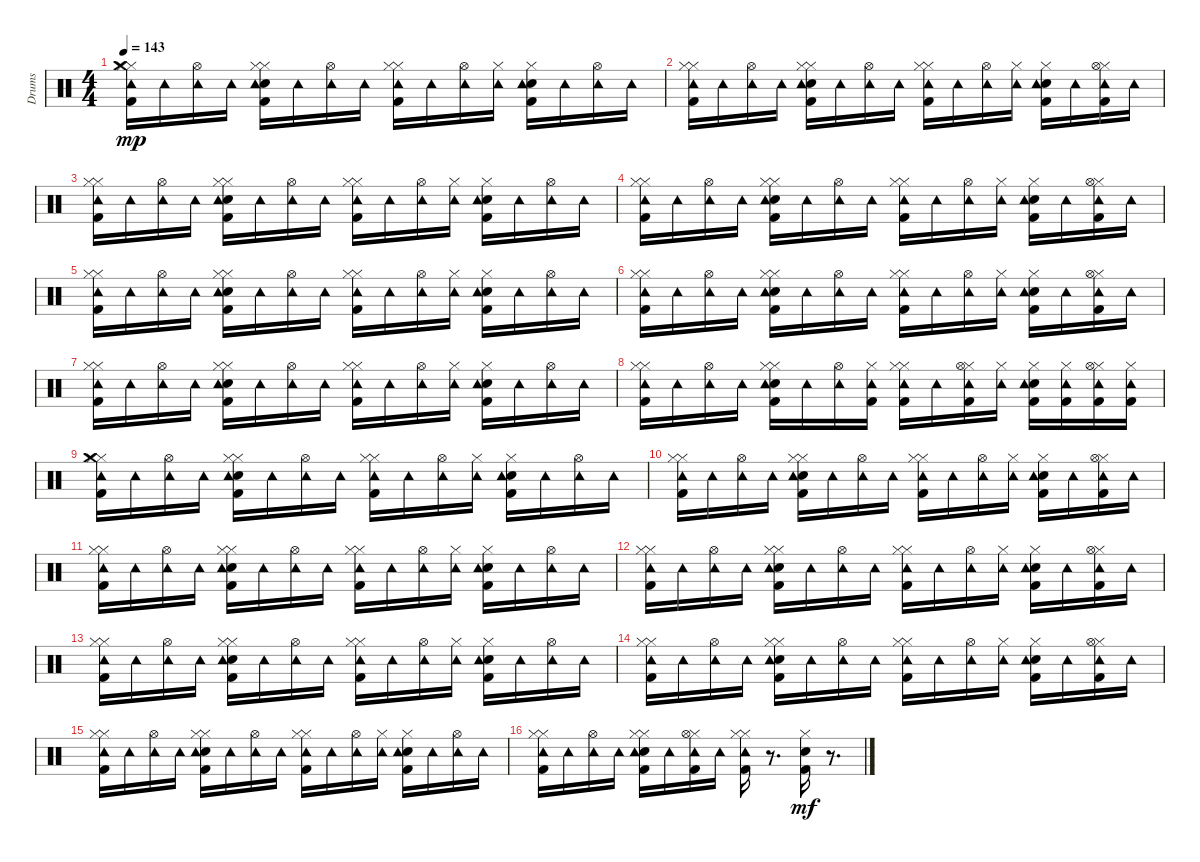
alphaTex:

\track ("Drums" "Drums") {instrument percussion}
\staff {score}
\articulation defaults
\ts (4 4)
\tempo 143
\clef neutral
\ks c
("Hi-Hat (closed)" "Kick (hit) 2" "Hi-Hat (closed)" "Tambourine (hit)" "Crash medium (hit)").16{dy mp} "Tambourine (hit)".16 ("Hi-Hat (open)" "Tambourine (hit)").16 "Tambourine (hit)".16 ("Hi-Hat (closed)" "Kick (hit) 2" "Hand Clap (hit)" "Hi-Hat (closed)" "Tambourine (hit)").16 "Tambourine (hit)".16 ("Hi-Hat (open)" "Tambourine (hit)").16 "Tambourine (hit)".16 ("Hi-Hat (closed)" "Kick (hit) 2" "Hi-Hat (closed)" "Tambourine (hit)").16 "Tambourine (hit)".16 ("Hi-Hat (open)" "Tambourine (hit)").16 ("Hi-Hat (closed)" "Tambourine (hit)").16 ("Hi-Hat (closed)" "Kick (hit) 2" "Hand Clap (hit)" "Tambourine (hit)").16 "Tambourine (hit)".16 ("Hi-Hat (open)" "Tambourine (hit)").16 "Tambourine (hit)".16 |
("Hi-Hat (closed)" "Kick (hit) 2" "Hi-Hat (closed)" "Tambourine (hit)").16 "Tambourine (hit)".16 ("Hi-Hat (open)" "Tambourine (hit)").16 "Tambourine (hit)".16 ("Hi-Hat (closed)" "Kick (hit) 2" "Hand Clap (hit)" "Hi-Hat (closed)" "Tambourine (hit)").16 "Tambourine (hit)".16 ("Hi-Hat (open)" "Tambourine (hit)").16 "Tambourine (hit)".16 ("Hi-Hat (closed)" "Kick (hit) 2" "Hi-Hat (closed)" "Tambourine (hit)").16 "Tambourine (hit)".16 ("Hi-Hat (open)" "Tambourine (hit)").16 ("Hi-Hat (closed)" "Tambourine (hit)").16 ("Hi-Hat (closed)" "Kick (hit) 2" "Hand Clap (hit)" "Tambourine (hit)").16 "Tambourine (hit)".16 ("Hi-Hat (closed)" "Kick (hit) 2" "Hi-Hat (open)" "Tambourine (hit)").16 "Tambourine (hit)".16 |
("Hi-Hat (closed)" "Kick (hit) 2" "Hi-Hat (closed)" "Tambourine (hit)").16 "Tambourine (hit)".16 ("Hi-Hat (open)" "Tambourine (hit)").16 "Tambourine (hit)".16 ("Hi-Hat (closed)" "Kick (hit) 2" "Hand Clap (hit)" "Hi-Hat (closed)" "Tambourine (hit)").16 "Tambourine (hit)".16 ("Hi-Hat (open)" "Tambourine (hit)").16 "Tambourine (hit)".16 ("Hi-Hat (closed)" "Kick (hit) 2" "Hi-Hat (closed)" "Tambourine (hit)").16 "Tambourine (hit)".16 ("Hi-Hat (open)" "Tambourine (hit)").16 ("Hi-Hat (closed)" "Tambourine (hit)").16 ("Hi-Hat (closed)" "Kick (hit) 2" "Hand Clap (hit)" "Tambourine (hit)").16 "Tambourine (hit)".16 ("Hi-Hat (open)" "Tambourine (hit)").16 "Tambourine (hit)".16 |
("Hi-Hat (closed)" "Kick (hit) 2" "Hi-Hat (closed)" "Tambourine (hit)").16 "Tambourine (hit)".16 ("Hi-Hat (open)" "Tambourine (hit)").16 "Tambourine (hit)".16 ("Hi-Hat (closed)" "Kick (hit) 2" "Hand Clap (hit)" "Hi-Hat (closed)" "Tambourine (hit)").16 "Tambourine (hit)".16 ("Hi-Hat (open)" "Tambourine (hit)").16 "Tambourine (hit)".16 ("Hi-Hat (closed)" "Kick (hit) 2" "Hi-Hat (closed)" "Tambourine (hit)").16 "Tambourine (hit)".16 ("Hi-Hat (open)" "Tambourine (hit)").16 ("Hi-Hat (closed)" "Tambourine (hit)").16 ("Hi-Hat (closed)" "Kick (hit) 2" "Hand Clap (hit)" "Tambourine (hit)").16 "Tambourine (hit)".16 ("Hi-Hat (closed)" "Kick (hit) 2" "Hi-Hat (open)" "Tambourine (hit)").16 "Tambourine (hit)".16 |
("Hi-Hat (closed)" "Kick (hit) 2" "Hi-Hat (closed)" "Tambourine (hit)").16 "Tambourine (hit)".16 ("Hi-Hat (open)" "Tambourine (hit)").16 "Tambourine (hit)".16 ("Hi-Hat (closed)" "Kick (hit) 2" "Hand Clap (hit)" "Hi-Hat (closed)" "Tambourine (hit)").16 "Tambourine (hit)".16 ("Hi-Hat (open)" "Tambourine (hit)").16 "Tambourine (hit)".16 ("Hi-Hat (closed)" "Kick (hit) 2" "Hi-Hat (closed)" "Tambourine (hit)").16 "Tambourine (hit)".16 ("Hi-Hat (open)" "Tambourine (hit)").16 ("Hi-Hat (closed)" "Tambourine (hit)").16 ("Hi-Hat (closed)" "Kick (hit) 2" "Hand Clap (hit)" "Tambourine (hit)").16 "Tambourine (hit)".16 ("Hi-Hat (open)" "Tambourine (hit)").16 "Tambourine (hit)".16 |
("Hi-Hat (closed)" "Kick (hit) 2" "Hi-Hat (closed)" "Tambourine (hit)").16 "Tambourine (hit)".16 ("Hi-Hat (open)" "Tambourine (hit)").16 "Tambourine (hit)".16 ("Hi-Hat (closed)" "Kick (hit) 2" "Hand Clap (hit)" "Hi-Hat (closed)" "Tambourine (hit)").16 "Tambourine (hit)".16 ("Hi-Hat (open)" "Tambourine (hit)").16 "Tambourine (hit)".16 ("Hi-Hat (closed)" "Kick (hit) 2" "Hi-Hat (closed)" "Tambourine (hit)").16 "Tambourine (hit)".16 ("Hi-Hat (open)" "Tambourine (hit)").16 ("Hi-Hat (closed)" "Tambourine (hit)").16 ("Hi-Hat (closed)" "Kick (hit) 2" "Hand Clap (hit)" "Tambourine (hit)").16 "Tambourine (hit)".16 ("Hi-Hat (closed)" "Kick (hit) 2" "Hi-Hat (open)" "Tambourine (hit)").16 "Tambourine (hit)".16 |
("Hi-Hat (closed)" "Kick (hit) 2" "Hi-Hat (closed)" "Tambourine (hit)").16 "Tambourine (hit)".16 ("Hi-Hat (open)" "Tambourine (hit)").16 "Tambourine (hit)".16 ("Hi-Hat (closed)" "Kick (hit) 2" "Hand Clap (hit)" "Hi-Hat (closed)" "Tambourine (hit)").16 "Tambourine (hit)".16 ("Hi-Hat (open)" "Tambourine (hit)").16 "Tambourine (hit)".16 ("Hi-Hat (closed)" "Kick (hit) 2" "Hi-Hat (closed)" "Tambourine (hit)").16 "Tambourine (hit)".16 ("Hi-Hat (open)" "Tambourine (hit)").16 ("Hi-Hat (closed)" "Tambourine (hit)").16 ("Hi-Hat (closed)" "Kick (hit) 2" "Hand Clap (hit)" "Tambourine (hit)").16 "Tambourine (hit)".16 ("Hi-Hat (open)" "Tambourine (hit)").16 "Tambourine (hit)".16 |
("Hi-Hat (closed)" "Kick (hit) 2" "Hi-Hat (closed)" "Tambourine (hit)").16 "Tambourine (hit)".16 ("Hi-Hat (open)" "Tambourine (hit)").16 "Tambourine (hit)".16 ("Hi-Hat (closed)" "Kick (hit) 2" "Hand Clap (hit)" "Hi-Hat (closed)" "Tambourine (hit)").16 "Tambourine (hit)".16 ("Hi-Hat (open)" "Tambourine (hit)").16 ("Hi-Hat (closed)" "Kick (hit) 2" "Tambourine (hit)").16 ("Hi-Hat (closed)" "Kick (hit) 2" "Hi-Hat (closed)" "Tambourine (hit)").16 "Tambourine (hit)".16 ("Hi-Hat (closed)" "Kick (hit) 2" "Hi-Hat (open)" "Tambourine (hit)").16 ("Hi-Hat (closed)" "Tambourine (hit)").16 ("Hi-Hat (closed)" "Kick (hit) 2" "Hand Clap (hit)" "Tambourine (hit)").16 ("Hi-Hat (closed)" "Kick (hit) 2" "Tambourine (hit)").16 ("Hi-Hat (closed)" "Kick (hit) 2" "Hi-Hat (open)" "Tambourine (hit)").16 ("Hi-Hat (closed)" "Kick (hit) 2" "Tambourine (hit)").16 |
("Hi-Hat (closed)" "Kick (hit) 2" "Hi-Hat (closed)" "Tambourine (hit)" "Crash medium (hit)").16 "Tambourine (hit)".16 ("Hi-Hat (open)" "Tambourine (hit)").16 "Tambourine (hit)".16 ("Hi-Hat (closed)" "Kick (hit) 2" "Hand Clap (hit)" "Hi-Hat (closed)" "Tambourine (hit)").16 "Tambourine (hit)".16 ("Hi-Hat (open)" "Tambourine (hit)").16 "Tambourine (hit)".16 ("Hi-Hat (closed)" "Kick (hit) 2" "Hi-Hat (closed)" "Tambourine (hit)").16 "Tambourine (hit)".16 ("Hi-Hat (open)" "Tambourine (hit)").16 ("Hi-Hat (closed)" "Tambourine (hit)").16 ("Hi-Hat (closed)" "Kick (hit) 2" "Hand Clap (hit)" "Tambourine (hit)").16 "Tambourine (hit)".16 ("Hi-Hat (open)" "Tambourine (hit)").16 "Tambourine (hit)".16 |
("Hi-Hat (closed)" "Kick (hit) 2" "Hi-Hat (closed)" "Tambourine (hit)").16 "Tambourine (hit)".16 ("Hi-Hat (open)" "Tambourine (hit)").16 "Tambourine (hit)".16 ("Hi-Hat (closed)" "Kick (hit) 2" "Hand Clap (hit)" "Hi-Hat (closed)" "Tambourine (hit)").16 "Tambourine (hit)".16 ("Hi-Hat (open)" "Tambourine (hit)").16 "Tambourine (hit)".16 ("Hi-Hat (closed)" "Kick (hit) 2" "Hi-Hat (closed)" "Tambourine (hit)").16 "Tambourine (hit)".16 ("Hi-Hat (open)" "Tambourine (hit)").16 ("Hi-Hat (closed)" "Tambourine (hit)").16 ("Hi-Hat (closed)" "Kick (hit) 2" "Hand Clap (hit)" "Tambourine (hit)").16 "Tambourine (hit)".16 ("Hi-Hat (closed)" "Kick (hit) 2" "Hi-Hat (open)" "Tambourine (hit)").16 "Tambourine (hit)".16 |
("Hi-Hat (closed)" "Kick (hit) 2" "Hi-Hat (closed)" "Tambourine (hit)").16 "Tambourine (hit)".16 ("Hi-Hat (open)" "Tambourine (hit)").16 "Tambourine (hit)".16 ("Hi-Hat (closed)" "Kick (hit) 2" "Hand Clap (hit)" "Hi-Hat (closed)" "Tambourine (hit)").16 "Tambourine (hit)".16 ("Hi-Hat (open)" "Tambourine (hit)").16 "Tambourine (hit)".16 ("Hi-Hat (closed)" "Kick (hit) 2" "Hi-Hat (closed)" "Tambourine (hit)").16 "Tambourine (hit)".16 ("Hi-Hat (open)" "Tambourine (hit)").16 ("Hi-Hat (closed)" "Tambourine (hit)").16 ("Hi-Hat (closed)" "Kick (hit) 2" "Hand Clap (hit)" "Tambourine (hit)").16 "Tambourine (hit)".16 ("Hi-Hat (open)" "Tambourine (hit)").16 "Tambourine (hit)".16 |
("Hi-Hat (closed)" "Kick (hit) 2" "Hi-Hat (closed)" "Tambourine (hit)").16 "Tambourine (hit)".16 ("Hi-Hat (open)" "Tambourine (hit)").16 "Tambourine (hit)".16 ("Hi-Hat (closed)" "Kick (hit) 2" "Hand Clap (hit)" "Hi-Hat (closed)" "Tambourine (hit)").16 "Tambourine (hit)".16 ("Hi-Hat (open)" "Tambourine (hit)").16 "Tambourine (hit)".16 ("Hi-Hat (closed)" "Kick (hit) 2" "Hi-Hat (closed)" "Tambourine (hit)").16 "Tambourine (hit)".16 ("Hi-Hat (open)" "Tambourine (hit)").16 ("Hi-Hat (closed)" "Tambourine (hit)").16 ("Hi-Hat (closed)" "Kick (hit) 2" "Hand Clap (hit)" "Tambourine (hit)").16 "Tambourine (hit)".16 ("Hi-Hat (closed)" "Kick (hit) 2" "Hi-Hat (open)" "Tambourine (hit)").16 "Tambourine (hit)".16 |
("Hi-Hat (closed)" "Kick (hit) 2" "Hi-Hat (closed)" "Tambourine (hit)").16 "Tambourine (hit)".16 ("Hi-Hat (open)" "Tambourine (hit)").16 "Tambourine (hit)".16 ("Hi-Hat (closed)" "Kick (hit) 2" "Hand Clap (hit)" "Hi-Hat (closed)" "Tambourine (hit)").16 "Tambourine (hit)".16 ("Hi-Hat (open)" "Tambourine (hit)").16 "Tambourine (hit)".16 ("Hi-Hat (closed)" "Kick (hit) 2" "Hi-Hat (closed)" "Tambourine (hit)").16 "Tambourine (hit)".16 ("Hi-Hat (open)" "Tambourine (hit)").16 ("Hi-Hat (closed)" "Tambourine (hit)").16 ("Hi-Hat (closed)" "Kick (hit) 2" "Hand Clap (hit)" "Tambourine (hit)").16 "Tambourine (hit)".16 ("Hi-Hat (open)" "Tambourine (hit)").16 "Tambourine (hit)".16 |
("Hi-Hat (closed)" "Kick (hit) 2" "Hi-Hat (closed)" "Tambourine (hit)").16 "Tambourine (hit)".16 ("Hi-Hat (open)" "Tambourine (hit)").16 "Tambourine (hit)".16 ("Hi-Hat (closed)" "Kick (hit) 2" "Hand Clap (hit)" "Hi-Hat (closed)" "Tambourine (hit)").16 "Tambourine (hit)".16 ("Hi-Hat (open)" "Tambourine (hit)").16 "Tambourine (hit)".16 ("Hi-Hat (closed)" "Kick (hit) 2" "Hi-Hat (closed)" "Tambourine (hit)").16 "Tambourine (hit)".16 ("Hi-Hat (open)" "Tambourine (hit)").16 ("Hi-Hat (closed)" "Tambourine (hit)").16 ("Hi-Hat (closed)" "Kick (hit) 2" "Hand Clap (hit)" "Tambourine (hit)").16 "Tambourine (hit)".16 ("Hi-Hat (closed)" "Kick (hit) 2" "Hi-Hat (open)" "Tambourine (hit)").16 "Tambourine (hit)".16 |
("Hi-Hat (closed)" "Kick (hit) 2" "Hi-Hat (closed)" "Tambourine (hit)").16 "Tambourine (hit)".16 ("Hi-Hat (open)" "Tambourine (hit)").16 "Tambourine (hit)".16 ("Hi-Hat (closed)" "Kick (hit) 2" "Hand Clap (hit)" "Hi-Hat (closed)" "Tambourine (hit)").16 "Tambourine (hit)".16 ("Hi-Hat (open)" "Tambourine (hit)").16 "Tambourine (hit)".16 ("Hi-Hat (closed)" "Kick (hit) 2" "Hi-Hat (closed)" "Tambourine (hit)").16 "Tambourine (hit)".16 ("Hi-Hat (open)" "Tambourine (hit)").16 ("Hi-Hat (closed)" "Tambourine (hit)").16 ("Hi-Hat (closed)" "Kick (hit) 2" "Hand Clap (hit)" "Tambourine (hit)").16 "Tambourine (hit)".16 ("Hi-Hat (open)" "Tambourine (hit)").16 "Tambourine (hit)".16 |
("Hi-Hat (closed)" "Kick (hit) 2" "Hi-Hat (closed)" "Tambourine (hit)").16 "Tambourine (hit)".16 ("Hi-Hat (open)" "Tambourine (hit)").16 "Tambourine (hit)".16 ("Hi-Hat (closed)" "Kick (hit) 2" "Hand Clap (hit)" "Hi-Hat (closed)" "Tambourine (hit)").16 "Tambourine (hit)".16 ("Hi-Hat (closed)" "Kick (hit) 2" "Hi-Hat (open)" "Tambourine (hit)").16 "Tambourine (hit)".16 ("Hi-Hat (closed)" "Kick (hit) 2" "Hi-Hat (closed)" "Tambourine (hit)").16 r.8{d} ("Hi-Hat (closed)" "Kick (hit) 2" "Hand Clap (hit)").16{dy mf} r.8{d}
